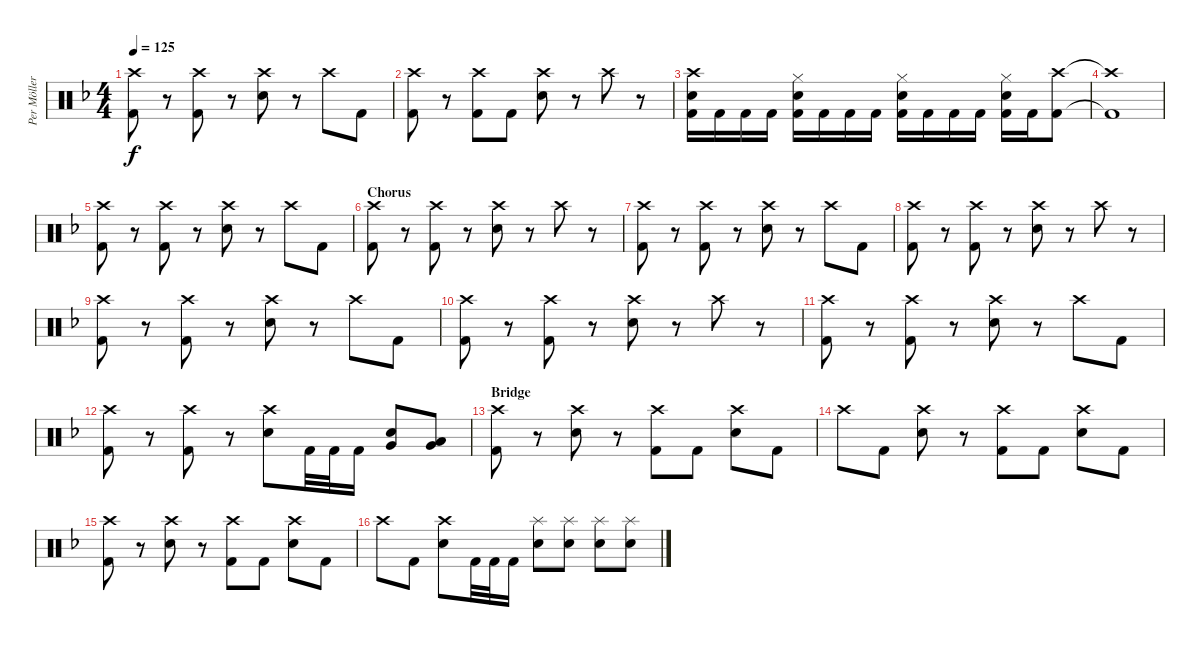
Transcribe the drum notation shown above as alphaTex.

\track ("Per Möller Jensen" "Per Möller") {instrument percussion}
\staff {score}
\articulation defaults
\ts (4 4)
\tempo 125
\clef neutral
\ks dminor
("Crash high (hit)" "Kick (hit) 2").8{dy f} r.8 ("Crash high (hit)" "Kick (hit) 2").8 r.8 ("Crash high (hit)" "Electric Snare (hit)").8 r.8 "Crash high (hit)".8 "Kick (hit) 2".8 |
("Crash high (hit)" "Kick (hit) 2").8 r.8 ("Crash high (hit)" "Kick (hit) 2").8 "Kick (hit) 2".8 ("Crash high (hit)" "Electric Snare (hit)").8 r.8 "Crash high (hit)".8 r.8 |
("Crash high (hit)" "Electric Snare (hit)" "Kick (hit) 2").16 "Kick (hit) 2".16 "Kick (hit) 2".16 "Kick (hit) 2".16 ("Hi-Hat (closed)" "Electric Snare (hit)" "Kick (hit) 2").16 "Kick (hit) 2".16 "Kick (hit) 2".16 "Kick (hit) 2".16 ("Hi-Hat (closed)" "Electric Snare (hit)" "Kick (hit) 2").16 "Kick (hit) 2".16 "Kick (hit) 2".16 "Kick (hit) 2".16 ("Hi-Hat (closed)" "Electric Snare (hit)" "Kick (hit) 2").16 "Kick (hit) 2".16 ("Crash high (hit)" "Kick (hit) 2").8 |
("Crash high (hit)"{t} "Kick (hit) 2"{t}).1 |
("Crash high (hit)" "Kick (hit) 2").8 r.8 ("Crash high (hit)" "Kick (hit) 2").8 r.8 ("Crash high (hit)" "Electric Snare (hit)").8 r.8 "Crash high (hit)".8 "Kick (hit) 2".8 |
\section ("" "Chorus")
("Crash high (hit)" "Kick (hit) 2").8 r.8 ("Crash high (hit)" "Kick (hit) 2").8 r.8 ("Crash high (hit)" "Electric Snare (hit)").8 r.8 "Crash high (hit)".8 r.8 |
("Crash high (hit)" "Kick (hit) 2").8 r.8 ("Crash high (hit)" "Kick (hit) 2").8 r.8 ("Crash high (hit)" "Electric Snare (hit)").8 r.8 "Crash high (hit)".8 "Kick (hit) 2".8 |
("Crash high (hit)" "Kick (hit) 2").8 r.8 ("Crash high (hit)" "Kick (hit) 2").8 r.8 ("Crash high (hit)" "Electric Snare (hit)").8 r.8 "Crash high (hit)".8 r.8 |
("Crash high (hit)" "Kick (hit) 2").8 r.8 ("Crash high (hit)" "Kick (hit) 2").8 r.8 ("Crash high (hit)" "Electric Snare (hit)").8 r.8 "Crash high (hit)".8 "Kick (hit) 2".8 |
("Crash high (hit)" "Kick (hit) 2").8 r.8 ("Crash high (hit)" "Kick (hit) 2").8 r.8 ("Crash high (hit)" "Electric Snare (hit)").8 r.8 "Crash high (hit)".8 r.8 |
("Crash high (hit)" "Kick (hit) 2").8 r.8 ("Crash high (hit)" "Kick (hit) 2").8 r.8 ("Crash high (hit)" "Electric Snare (hit)").8 r.8 "Crash high (hit)".8 "Kick (hit) 2".8 |
("Crash high (hit)" "Kick (hit) 2").8 r.8 ("Crash high (hit)" "Kick (hit) 2").8 r.8 ("Crash high (hit)" "Electric Snare (hit)").8 "Kick (hit) 2".32 "Kick (hit) 2".32 "Kick (hit) 2".16 ("Electric Snare (hit)" "Very Low Tom (hit)").8 ("Very Low Tom (hit)" "Low Floor Tom (hit)").8 |
\section ("" "Bridge")
("Crash high (hit)" "Kick (hit) 2").8 r.8 ("Crash high (hit)" "Electric Snare (hit)").8 r.8 ("Crash high (hit)" "Kick (hit) 2").8 "Kick (hit) 2".8 ("Crash high (hit)" "Electric Snare (hit)").8 "Kick (hit) 2".8 |
"Crash high (hit)".8 "Kick (hit) 2".8 ("Crash high (hit)" "Electric Snare (hit)").8 r.8 ("Crash high (hit)" "Kick (hit) 2").8 "Kick (hit) 2".8 ("Crash high (hit)" "Electric Snare (hit)").8 "Kick (hit) 2".8 |
("Crash high (hit)" "Kick (hit) 2").8 r.8 ("Crash high (hit)" "Electric Snare (hit)").8 r.8 ("Crash high (hit)" "Kick (hit) 2").8 "Kick (hit) 2".8 ("Crash high (hit)" "Electric Snare (hit)").8 "Kick (hit) 2".8 |
"Crash high (hit)".8 "Kick (hit) 2".8 ("Crash high (hit)" "Electric Snare (hit)").8 "Kick (hit) 2".32 "Kick (hit) 2".32 "Kick (hit) 2".16 ("Splash (hit)" "Electric Snare (hit)").8 ("Splash (hit)" "Electric Snare (hit)").8 ("Splash (hit)" "Electric Snare (hit)").8 ("Splash (hit)" "Electric Snare (hit)").8
